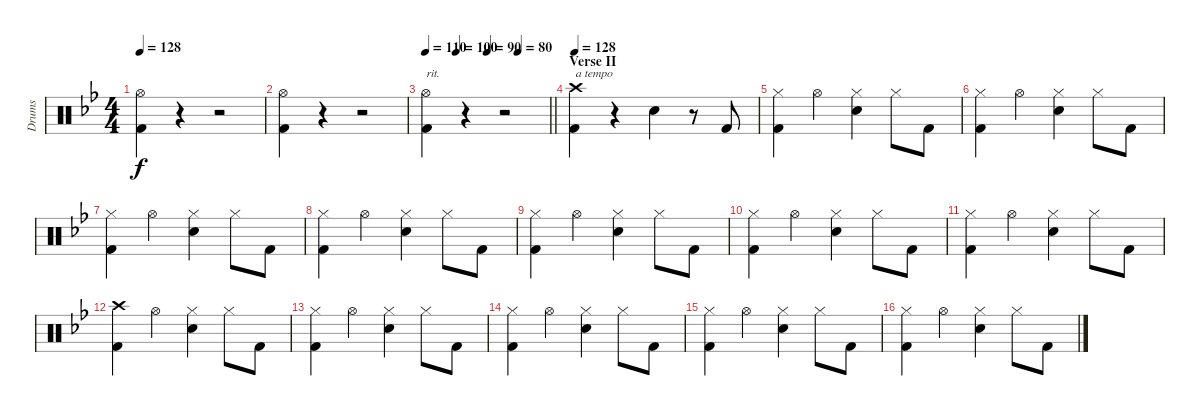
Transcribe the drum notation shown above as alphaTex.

\track ("Drums" "Drums") {instrument percussion}
\staff {score}
\articulation defaults
\ts (4 4)
\tempo 128
\clef neutral
\ks bb
("Hi-Hat (open)" "Kick (hit) 2").4{dy f} r.4 r.2 |
("Hi-Hat (open)" "Kick (hit) 2").4 r.4 r.2 |
\tempo 110
\tempo (100 0.25)
\tempo (90 0.5)
\tempo (80 0.75)
\barLineRight lightlight
("Hi-Hat (open)" "Kick (hit) 2").4{txt "rit."} r.4 r.2 |
\section ("" "Verse II")
\tempo 128
("Crash high (hit)" "Kick (hit) 2").4{txt "a tempo"} r.4 "Electric Snare (hit)".4 r.8 "Kick (hit) 2".8 |
("Hi-Hat (closed)" "Kick (hit) 2").4 "Hi-Hat (open)".4 ("Hi-Hat (closed)" "Electric Snare (hit)").4 "Hi-Hat (closed)".8 "Kick (hit) 2".8 |
("Hi-Hat (closed)" "Kick (hit) 2").4 "Hi-Hat (open)".4 ("Hi-Hat (closed)" "Electric Snare (hit)").4 "Hi-Hat (closed)".8 "Kick (hit) 2".8 |
("Hi-Hat (closed)" "Kick (hit) 2").4 "Hi-Hat (open)".4 ("Hi-Hat (closed)" "Electric Snare (hit)").4 "Hi-Hat (closed)".8 "Kick (hit) 2".8 |
("Hi-Hat (closed)" "Kick (hit) 2").4 "Hi-Hat (open)".4 ("Hi-Hat (closed)" "Electric Snare (hit)").4 "Hi-Hat (closed)".8 "Kick (hit) 2".8 |
("Hi-Hat (closed)" "Kick (hit) 2").4 "Hi-Hat (open)".4 ("Hi-Hat (closed)" "Electric Snare (hit)").4 "Hi-Hat (closed)".8 "Kick (hit) 2".8 |
("Hi-Hat (closed)" "Kick (hit) 2").4 "Hi-Hat (open)".4 ("Hi-Hat (closed)" "Electric Snare (hit)").4 "Hi-Hat (closed)".8 "Kick (hit) 2".8 |
("Hi-Hat (closed)" "Kick (hit) 2").4 "Hi-Hat (open)".4 ("Hi-Hat (closed)" "Electric Snare (hit)").4 "Hi-Hat (closed)".8 "Kick (hit) 2".8 |
("Crash high (hit)" "Kick (hit) 2").4 "Hi-Hat (open)".4 ("Hi-Hat (closed)" "Electric Snare (hit)").4 "Hi-Hat (closed)".8 "Kick (hit) 2".8 |
("Hi-Hat (closed)" "Kick (hit) 2").4 "Hi-Hat (open)".4 ("Hi-Hat (closed)" "Electric Snare (hit)").4 "Hi-Hat (closed)".8 "Kick (hit) 2".8 |
("Hi-Hat (closed)" "Kick (hit) 2").4 "Hi-Hat (open)".4 ("Hi-Hat (closed)" "Electric Snare (hit)").4 "Hi-Hat (closed)".8 "Kick (hit) 2".8 |
("Hi-Hat (closed)" "Kick (hit) 2").4 "Hi-Hat (open)".4 ("Hi-Hat (closed)" "Electric Snare (hit)").4 "Hi-Hat (closed)".8 "Kick (hit) 2".8 |
("Hi-Hat (closed)" "Kick (hit) 2").4 "Hi-Hat (open)".4 ("Hi-Hat (closed)" "Electric Snare (hit)").4 "Hi-Hat (closed)".8 "Kick (hit) 2".8
